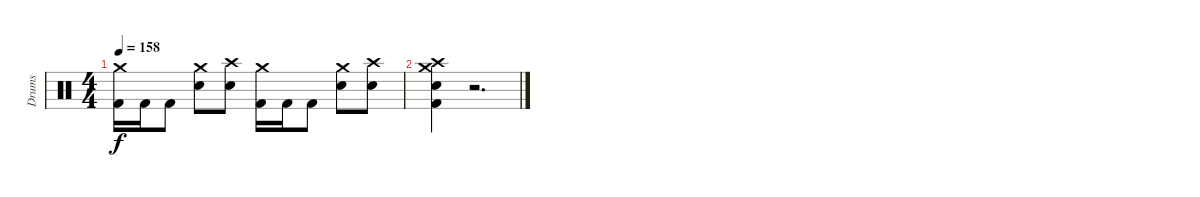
\track ("Drums" "Drums") {instrument percussion}
\staff {score}
\articulation defaults
\ts (4 4)
\tempo 158
\clef neutral
\ks c
("Crash medium (hit)" "Kick (hit) 2").16{dy f} "Kick (hit) 2".16 "Kick (hit) 2".8 ("Crash medium (hit)" "Snare (hit) 2").8 ("Crash high (hit)" "Snare (hit) 2").8 ("Crash medium (hit)" "Kick (hit) 2").16 "Kick (hit) 2".16 "Kick (hit) 2".8 ("Crash medium (hit)" "Snare (hit) 2").8 ("Crash high (hit)" "Snare (hit) 2").8 |
("Crash medium (hit)" "Crash high (hit)" "Snare (hit) 2" "Kick (hit) 2").4 r.2{d}
